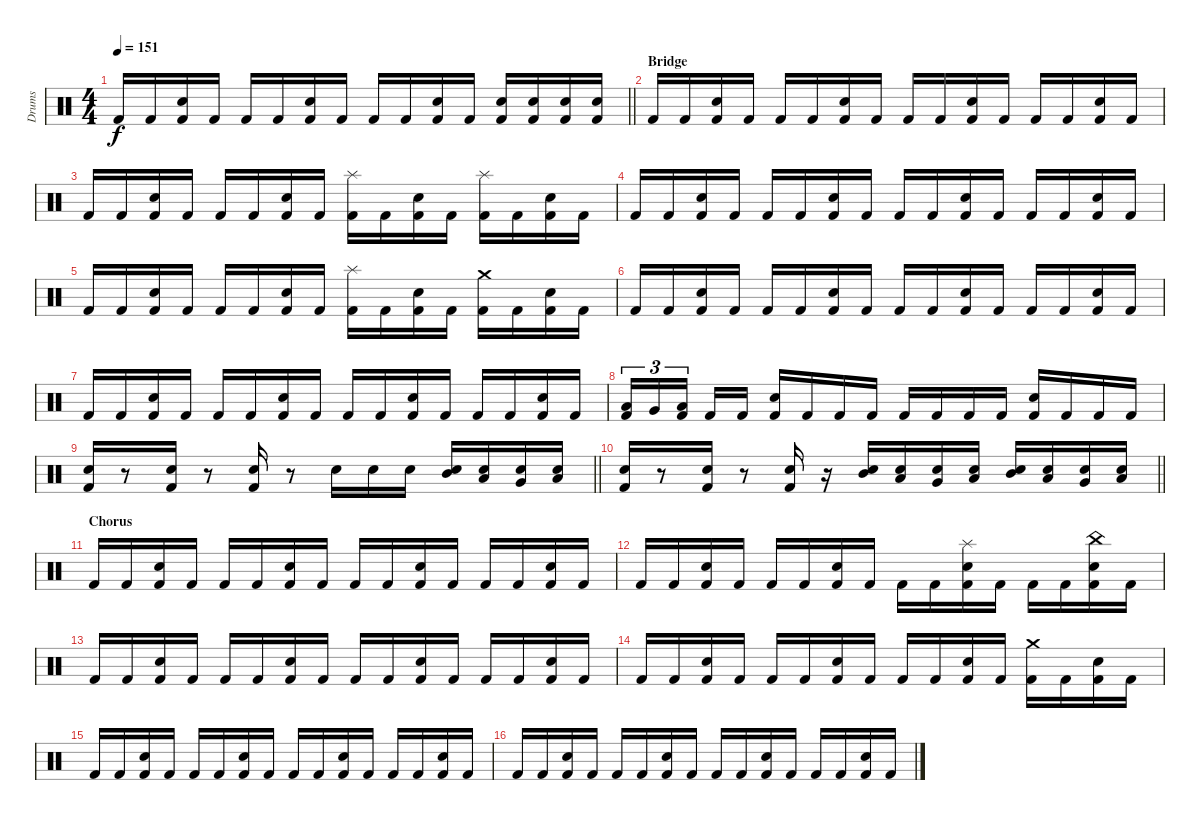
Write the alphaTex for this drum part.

\track ("Drums" "Drums") {instrument percussion}
\staff {score}
\articulation defaults
\ts (4 4)
\tempo 151
\clef neutral
\barLineRight lightlight
\ks c "Kick (hit) 2".16{dy f} "Kick (hit) 2".16
("Snare (hit) 2" "Kick (hit) 2").16 "Kick (hit) 2".16 "Kick (hit) 2".16 "Kick (hit) 2".16 ("Snare (hit) 2" "Kick (hit) 2").16 "Kick (hit) 2".16 "Kick (hit) 2".16 "Kick (hit) 2".16 ("Snare (hit) 2" "Kick (hit) 2").16 "Kick (hit) 2".16 ("Snare (hit) 2" "Kick (hit) 2").16 ("Snare (hit) 2" "Kick (hit) 2").16 ("Snare (hit) 2" "Kick (hit) 2").16 ("Snare (hit) 2" "Kick (hit) 2").16 |
\section ("" "Bridge")
"Kick (hit) 2".16 "Kick (hit) 2".16 ("Snare (hit) 2" "Kick (hit) 2").16 "Kick (hit) 2".16 "Kick (hit) 2".16 "Kick (hit) 2".16 ("Snare (hit) 2" "Kick (hit) 2").16 "Kick (hit) 2".16 "Kick (hit) 2".16 "Kick (hit) 2".16 ("Snare (hit) 2" "Kick (hit) 2").16 "Kick (hit) 2".16 "Kick (hit) 2".16 "Kick (hit) 2".16 ("Snare (hit) 2" "Kick (hit) 2").16 "Kick (hit) 2".16 |
"Kick (hit) 2".16 "Kick (hit) 2".16 ("Snare (hit) 2" "Kick (hit) 2").16 "Kick (hit) 2".16 "Kick (hit) 2".16 "Kick (hit) 2".16 ("Snare (hit) 2" "Kick (hit) 2").16 "Kick (hit) 2".16 ("Splash (hit)" "Kick (hit) 2").16 "Kick (hit) 2".16 ("Snare (hit) 2" "Kick (hit) 2").16 "Kick (hit) 2".16 ("Splash (hit)" "Kick (hit) 2").16 "Kick (hit) 2".16 ("Snare (hit) 2" "Kick (hit) 2").16 "Kick (hit) 2".16 |
"Kick (hit) 2".16 "Kick (hit) 2".16 ("Snare (hit) 2" "Kick (hit) 2").16 "Kick (hit) 2".16 "Kick (hit) 2".16 "Kick (hit) 2".16 ("Snare (hit) 2" "Kick (hit) 2").16 "Kick (hit) 2".16 "Kick (hit) 2".16 "Kick (hit) 2".16 ("Snare (hit) 2" "Kick (hit) 2").16 "Kick (hit) 2".16 "Kick (hit) 2".16 "Kick (hit) 2".16 ("Snare (hit) 2" "Kick (hit) 2").16 "Kick (hit) 2".16 |
"Kick (hit) 2".16 "Kick (hit) 2".16 ("Snare (hit) 2" "Kick (hit) 2").16 "Kick (hit) 2".16 "Kick (hit) 2".16 "Kick (hit) 2".16 ("Snare (hit) 2" "Kick (hit) 2").16 "Kick (hit) 2".16 ("Splash (hit)" "Kick (hit) 2").16 "Kick (hit) 2".16 ("Snare (hit) 2" "Kick (hit) 2").16 "Kick (hit) 2".16 ("Crash medium (hit)" "Kick (hit) 2").16 "Kick (hit) 2".16 ("Snare (hit) 2" "Kick (hit) 2").16 "Kick (hit) 2".16 |
"Kick (hit) 2".16 "Kick (hit) 2".16 ("Snare (hit) 2" "Kick (hit) 2").16 "Kick (hit) 2".16 "Kick (hit) 2".16 "Kick (hit) 2".16 ("Snare (hit) 2" "Kick (hit) 2").16 "Kick (hit) 2".16 "Kick (hit) 2".16 "Kick (hit) 2".16 ("Snare (hit) 2" "Kick (hit) 2").16 "Kick (hit) 2".16 "Kick (hit) 2".16 "Kick (hit) 2".16 ("Snare (hit) 2" "Kick (hit) 2").16 "Kick (hit) 2".16 |
"Kick (hit) 2".16 "Kick (hit) 2".16 ("Snare (hit) 2" "Kick (hit) 2").16 "Kick (hit) 2".16 "Kick (hit) 2".16 "Kick (hit) 2".16 ("Snare (hit) 2" "Kick (hit) 2").16 "Kick (hit) 2".16 "Kick (hit) 2".16 "Kick (hit) 2".16 ("Snare (hit) 2" "Kick (hit) 2").16 "Kick (hit) 2".16 "Kick (hit) 2".16 "Kick (hit) 2".16 ("Snare (hit) 2" "Kick (hit) 2").16 "Kick (hit) 2".16 |
("Low Tom (hit)" "Kick (hit) 2").16{tu (3 2)} "Very Low Tom (hit)".16{tu (3 2)} ("Low Floor Tom (hit)" "Kick (hit) 2").16{tu (3 2) beam splitsecondary} "Kick (hit) 2".16 "Kick (hit) 2".16 ("Snare (hit) 2" "Kick (hit) 2").16 "Kick (hit) 2".16 "Kick (hit) 2".16 "Kick (hit) 2".16 "Kick (hit) 2".16 "Kick (hit) 2".16 "Kick (hit) 2".16 "Kick (hit) 2".16 ("Snare (hit) 2" "Kick (hit) 2").16 "Kick (hit) 2".16 "Kick (hit) 2".16 "Kick (hit) 2".16 |
\barLineRight lightlight
("Snare (hit) 2" "Kick (hit) 2").16 r.8 ("Snare (hit) 2" "Kick (hit) 2").16 r.8 ("Snare (hit) 2" "Kick (hit) 2").16 r.8 "Snare (hit) 2".16 "Snare (hit) 2".16 "Snare (hit) 2".16 ("Mid Tom (hit)" "Snare (hit) 2").16 ("Low Tom (hit)" "Snare (hit) 2").16 ("Very Low Tom (hit)" "Snare (hit) 2").16 ("Low Floor Tom (hit)" "Snare (hit) 2").16 |
\barLineRight lightlight
("Snare (hit) 2" "Kick (hit) 2").16 r.8 ("Snare (hit) 2" "Kick (hit) 2").16 r.8 ("Snare (hit) 2" "Kick (hit) 2").16 r.16 ("Mid Tom (hit)" "Snare (hit) 2").16 ("Low Tom (hit)" "Snare (hit) 2").16 ("Very Low Tom (hit)" "Snare (hit) 2").16 ("Low Floor Tom (hit)" "Snare (hit) 2").16 ("Mid Tom (hit)" "Snare (hit) 2").16 ("Low Tom (hit)" "Snare (hit) 2").16 ("Very Low Tom (hit)" "Snare (hit) 2").16 ("Low Floor Tom (hit)" "Snare (hit) 2").16 |
\section ("" "Chorus")
"Kick (hit) 2".16 "Kick (hit) 2".16 ("Snare (hit) 2" "Kick (hit) 2").16 "Kick (hit) 2".16 "Kick (hit) 2".16 "Kick (hit) 2".16 ("Snare (hit) 2" "Kick (hit) 2").16 "Kick (hit) 2".16 "Kick (hit) 2".16 "Kick (hit) 2".16 ("Snare (hit) 2" "Kick (hit) 2").16 "Kick (hit) 2".16 "Kick (hit) 2".16 "Kick (hit) 2".16 ("Snare (hit) 2" "Kick (hit) 2").16 "Kick (hit) 2".16 |
"Kick (hit) 2".16 "Kick (hit) 2".16 ("Snare (hit) 2" "Kick (hit) 2").16 "Kick (hit) 2".16 "Kick (hit) 2".16 "Kick (hit) 2".16 ("Snare (hit) 2" "Kick (hit) 2").16 "Kick (hit) 2".16 "Kick (hit) 2".16 "Kick (hit) 2".16 ("Splash (hit)" "Snare (hit) 2" "Kick (hit) 2").16 "Kick (hit) 2".16 "Kick (hit) 2".16 "Kick (hit) 2".16 ("China (hit)" "Snare (hit) 2" "Kick (hit) 2").16 "Kick (hit) 2".16 |
"Kick (hit) 2".16 "Kick (hit) 2".16 ("Snare (hit) 2" "Kick (hit) 2").16 "Kick (hit) 2".16 "Kick (hit) 2".16 "Kick (hit) 2".16 ("Snare (hit) 2" "Kick (hit) 2").16 "Kick (hit) 2".16 "Kick (hit) 2".16 "Kick (hit) 2".16 ("Snare (hit) 2" "Kick (hit) 2").16 "Kick (hit) 2".16 "Kick (hit) 2".16 "Kick (hit) 2".16 ("Snare (hit) 2" "Kick (hit) 2").16 "Kick (hit) 2".16 |
"Kick (hit) 2".16 "Kick (hit) 2".16 ("Snare (hit) 2" "Kick (hit) 2").16 "Kick (hit) 2".16 "Kick (hit) 2".16 "Kick (hit) 2".16 ("Snare (hit) 2" "Kick (hit) 2").16 "Kick (hit) 2".16 "Kick (hit) 2".16 "Kick (hit) 2".16 ("Snare (hit) 2" "Kick (hit) 2").16 "Kick (hit) 2".16 ("Crash medium (hit)" "Kick (hit) 2").16 "Kick (hit) 2".16 ("Snare (hit) 2" "Kick (hit) 2").16 "Kick (hit) 2".16 |
"Kick (hit) 2".16 "Kick (hit) 2".16 ("Snare (hit) 2" "Kick (hit) 2").16 "Kick (hit) 2".16 "Kick (hit) 2".16 "Kick (hit) 2".16 ("Snare (hit) 2" "Kick (hit) 2").16 "Kick (hit) 2".16 "Kick (hit) 2".16 "Kick (hit) 2".16 ("Snare (hit) 2" "Kick (hit) 2").16 "Kick (hit) 2".16 "Kick (hit) 2".16 "Kick (hit) 2".16 ("Snare (hit) 2" "Kick (hit) 2").16 "Kick (hit) 2".16 |
"Kick (hit) 2".16 "Kick (hit) 2".16 ("Snare (hit) 2" "Kick (hit) 2").16 "Kick (hit) 2".16 "Kick (hit) 2".16 "Kick (hit) 2".16 ("Snare (hit) 2" "Kick (hit) 2").16 "Kick (hit) 2".16 "Kick (hit) 2".16 "Kick (hit) 2".16 ("Snare (hit) 2" "Kick (hit) 2").16 "Kick (hit) 2".16 "Kick (hit) 2".16 "Kick (hit) 2".16 ("Snare (hit) 2" "Kick (hit) 2").16 "Kick (hit) 2".16
